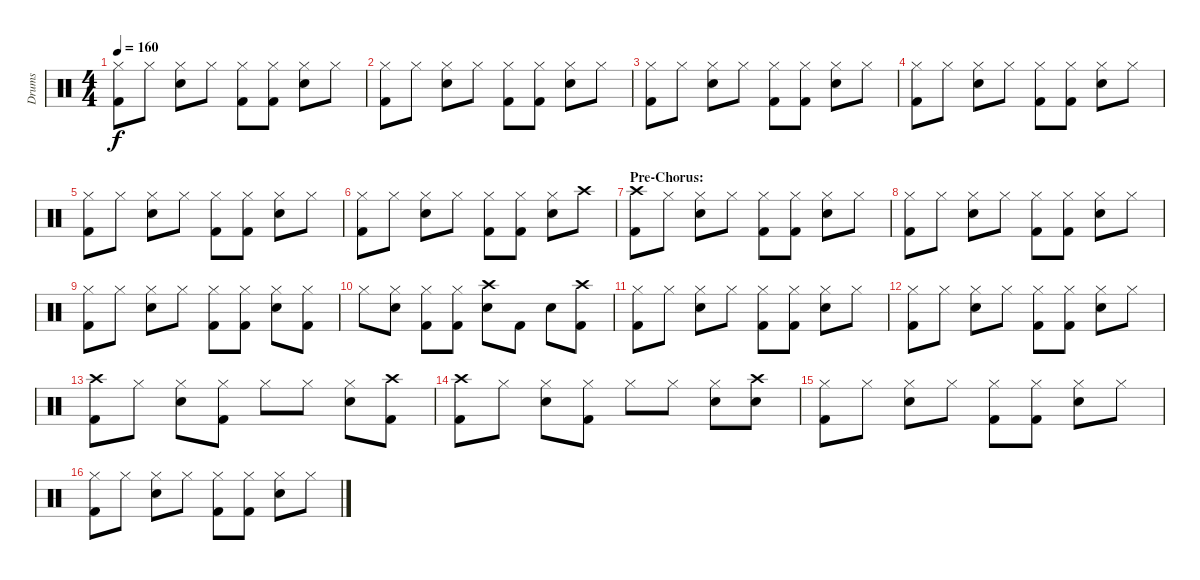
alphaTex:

\track ("Drums" "Drums") {instrument percussion}
\staff {score}
\articulation defaults
\ts (4 4)
\tempo 160
\clef neutral
\ks c
("Hi-Hat (closed)" "Kick (hit) 2").8{dy f} "Hi-Hat (closed)".8 ("Hi-Hat (closed)" "Electric Snare (hit)").8 "Hi-Hat (closed)".8 ("Hi-Hat (closed)" "Kick (hit) 2").8 ("Hi-Hat (closed)" "Kick (hit) 2").8 ("Hi-Hat (closed)" "Electric Snare (hit)").8 "Hi-Hat (closed)".8 |
("Hi-Hat (closed)" "Kick (hit) 2").8 "Hi-Hat (closed)".8 ("Hi-Hat (closed)" "Electric Snare (hit)").8 "Hi-Hat (closed)".8 ("Hi-Hat (closed)" "Kick (hit) 2").8 ("Hi-Hat (closed)" "Kick (hit) 2").8 ("Hi-Hat (closed)" "Electric Snare (hit)").8 "Hi-Hat (closed)".8 |
("Hi-Hat (closed)" "Kick (hit) 2").8 "Hi-Hat (closed)".8 ("Hi-Hat (closed)" "Electric Snare (hit)").8 "Hi-Hat (closed)".8 ("Hi-Hat (closed)" "Kick (hit) 2").8 ("Hi-Hat (closed)" "Kick (hit) 2").8 ("Hi-Hat (closed)" "Electric Snare (hit)").8 "Hi-Hat (closed)".8 |
("Hi-Hat (closed)" "Kick (hit) 2").8 "Hi-Hat (closed)".8 ("Hi-Hat (closed)" "Electric Snare (hit)").8 "Hi-Hat (closed)".8 ("Hi-Hat (closed)" "Kick (hit) 2").8 ("Hi-Hat (closed)" "Kick (hit) 2").8 ("Hi-Hat (closed)" "Electric Snare (hit)").8 "Hi-Hat (closed)".8 |
("Hi-Hat (closed)" "Kick (hit) 2").8 "Hi-Hat (closed)".8 ("Hi-Hat (closed)" "Electric Snare (hit)").8 "Hi-Hat (closed)".8 ("Hi-Hat (closed)" "Kick (hit) 2").8 ("Hi-Hat (closed)" "Kick (hit) 2").8 ("Hi-Hat (closed)" "Electric Snare (hit)").8 "Hi-Hat (closed)".8 |
("Hi-Hat (closed)" "Kick (hit) 2").8 "Hi-Hat (closed)".8 ("Hi-Hat (closed)" "Electric Snare (hit)").8 "Hi-Hat (closed)".8 ("Hi-Hat (closed)" "Kick (hit) 2").8 ("Hi-Hat (closed)" "Kick (hit) 2").8 ("Hi-Hat (closed)" "Electric Snare (hit)").8 "Crash high (hit)".8 |
\section ("" "Pre-Chorus:")
("Crash high (hit)" "Kick (hit) 2").8 "Hi-Hat (closed)".8 ("Hi-Hat (closed)" "Electric Snare (hit)").8 "Hi-Hat (closed)".8 ("Hi-Hat (closed)" "Kick (hit) 2").8 ("Hi-Hat (closed)" "Kick (hit) 2").8 ("Hi-Hat (closed)" "Electric Snare (hit)").8 "Hi-Hat (closed)".8 |
("Hi-Hat (closed)" "Kick (hit) 2").8 "Hi-Hat (closed)".8 ("Hi-Hat (closed)" "Electric Snare (hit)").8 "Hi-Hat (closed)".8 ("Hi-Hat (closed)" "Kick (hit) 2").8 ("Hi-Hat (closed)" "Kick (hit) 2").8 ("Hi-Hat (closed)" "Electric Snare (hit)").8 "Hi-Hat (closed)".8 |
("Hi-Hat (closed)" "Kick (hit) 2").8 "Hi-Hat (closed)".8 ("Hi-Hat (closed)" "Electric Snare (hit)").8 "Hi-Hat (closed)".8 ("Hi-Hat (closed)" "Kick (hit) 2").8 ("Hi-Hat (closed)" "Kick (hit) 2").8 ("Hi-Hat (closed)" "Electric Snare (hit)").8 ("Hi-Hat (closed)" "Kick (hit) 2").8 |
"Hi-Hat (closed)".8 ("Hi-Hat (closed)" "Electric Snare (hit)").8 ("Hi-Hat (closed)" "Kick (hit) 2").8 ("Hi-Hat (closed)" "Kick (hit) 2").8 ("Crash high (hit)" "Electric Snare (hit)").8 "Kick (hit) 2".8 "Electric Snare (hit)".8 ("Crash high (hit)" "Kick (hit) 2").8 |
("Hi-Hat (closed)" "Kick (hit) 2").8 "Hi-Hat (closed)".8 ("Hi-Hat (closed)" "Electric Snare (hit)").8 "Hi-Hat (closed)".8 ("Hi-Hat (closed)" "Kick (hit) 2").8 ("Hi-Hat (closed)" "Kick (hit) 2").8 ("Hi-Hat (closed)" "Electric Snare (hit)").8 "Hi-Hat (closed)".8 |
("Hi-Hat (closed)" "Kick (hit) 2").8 "Hi-Hat (closed)".8 ("Hi-Hat (closed)" "Electric Snare (hit)").8 "Hi-Hat (closed)".8 ("Hi-Hat (closed)" "Kick (hit) 2").8 ("Hi-Hat (closed)" "Kick (hit) 2").8 ("Hi-Hat (closed)" "Electric Snare (hit)").8 "Hi-Hat (closed)".8 |
("Crash high (hit)" "Kick (hit) 2").8 "Hi-Hat (closed)".8 ("Hi-Hat (closed)" "Electric Snare (hit)").8 ("Hi-Hat (closed)" "Kick (hit) 2").8 "Hi-Hat (closed)".8 "Hi-Hat (closed)".8 ("Hi-Hat (closed)" "Electric Snare (hit)").8 ("Crash high (hit)" "Kick (hit) 2").8 |
("Crash high (hit)" "Kick (hit) 2").8 "Hi-Hat (closed)".8 ("Hi-Hat (closed)" "Electric Snare (hit)").8 ("Hi-Hat (closed)" "Kick (hit) 2").8 "Hi-Hat (closed)".8 "Hi-Hat (closed)".8 ("Hi-Hat (closed)" "Electric Snare (hit)").8 ("Crash high (hit)" "Electric Snare (hit)").8 |
("Hi-Hat (closed)" "Kick (hit) 2").8 "Hi-Hat (closed)".8 ("Hi-Hat (closed)" "Electric Snare (hit)").8 "Hi-Hat (closed)".8 ("Hi-Hat (closed)" "Kick (hit) 2").8 ("Hi-Hat (closed)" "Kick (hit) 2").8 ("Hi-Hat (closed)" "Electric Snare (hit)").8 "Hi-Hat (closed)".8 |
("Hi-Hat (closed)" "Kick (hit) 2").8 "Hi-Hat (closed)".8 ("Hi-Hat (closed)" "Electric Snare (hit)").8 "Hi-Hat (closed)".8 ("Hi-Hat (closed)" "Kick (hit) 2").8 ("Hi-Hat (closed)" "Kick (hit) 2").8 ("Hi-Hat (closed)" "Electric Snare (hit)").8 "Hi-Hat (closed)".8
